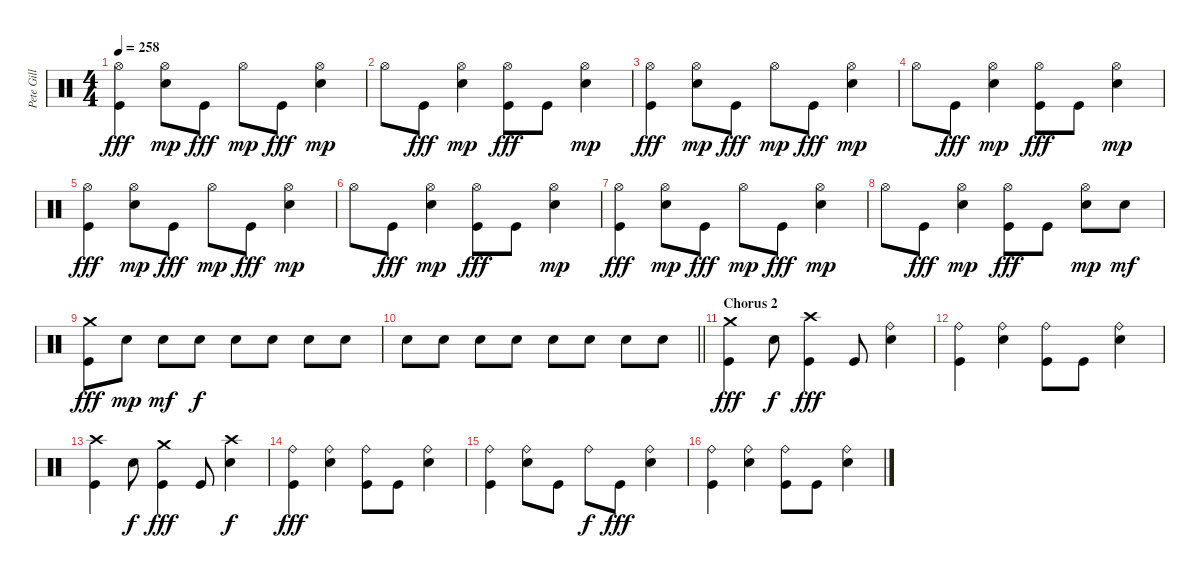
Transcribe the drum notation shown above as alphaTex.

\track ("Pete Gill" "Pete Gill") {instrument percussion}
\staff {score}
\articulation defaults
\ts (4 4)
\tempo 258
\clef neutral
\ks c
("Hi-Hat (open)" "Kick (hit)").4{dy fff} ("Hi-Hat (open)" "Electric Snare (hit)").8{dy mp} "Kick (hit)".8{dy fff} "Hi-Hat (open)".8{dy mp} "Kick (hit)".8{dy fff} ("Hi-Hat (open)" "Electric Snare (hit)").4{dy mp} |
"Hi-Hat (open)".8 "Kick (hit)".8{dy fff} ("Hi-Hat (open)" "Electric Snare (hit)").4{dy mp} ("Hi-Hat (open)" "Kick (hit)").8{dy fff} "Kick (hit)".8 ("Hi-Hat (open)" "Electric Snare (hit)").4{dy mp} |
("Hi-Hat (open)" "Kick (hit)").4{dy fff} ("Hi-Hat (open)" "Electric Snare (hit)").8{dy mp} "Kick (hit)".8{dy fff} "Hi-Hat (open)".8{dy mp} "Kick (hit)".8{dy fff} ("Hi-Hat (open)" "Electric Snare (hit)").4{dy mp} |
"Hi-Hat (open)".8 "Kick (hit)".8{dy fff} ("Hi-Hat (open)" "Electric Snare (hit)").4{dy mp} ("Hi-Hat (open)" "Kick (hit)").8{dy fff} "Kick (hit)".8 ("Hi-Hat (open)" "Electric Snare (hit)").4{dy mp} |
("Hi-Hat (open)" "Kick (hit)").4{dy fff} ("Hi-Hat (open)" "Electric Snare (hit)").8{dy mp} "Kick (hit)".8{dy fff} "Hi-Hat (open)".8{dy mp} "Kick (hit)".8{dy fff} ("Hi-Hat (open)" "Electric Snare (hit)").4{dy mp} |
"Hi-Hat (open)".8 "Kick (hit)".8{dy fff} ("Hi-Hat (open)" "Electric Snare (hit)").4{dy mp} ("Hi-Hat (open)" "Kick (hit)").8{dy fff} "Kick (hit)".8 ("Hi-Hat (open)" "Electric Snare (hit)").4{dy mp} |
("Hi-Hat (open)" "Kick (hit)").4{dy fff} ("Hi-Hat (open)" "Electric Snare (hit)").8{dy mp} "Kick (hit)".8{dy fff} "Hi-Hat (open)".8{dy mp} "Kick (hit)".8{dy fff} ("Hi-Hat (open)" "Electric Snare (hit)").4{dy mp} |
"Hi-Hat (open)".8 "Kick (hit)".8{dy fff} ("Hi-Hat (open)" "Electric Snare (hit)").4{dy mp} ("Hi-Hat (open)" "Kick (hit)").8{dy fff} "Kick (hit)".8 ("Hi-Hat (open)" "Electric Snare (hit)").8{dy mp} "Electric Snare (hit)".8{dy mf} |
("Crash medium (hit)" "Kick (hit)").8{dy fff} "Electric Snare (hit)".8{dy mp} "Electric Snare (hit)".8{dy mf} "Electric Snare (hit)".8{dy f} "Electric Snare (hit)".8 "Electric Snare (hit)".8 "Electric Snare (hit)".8 "Electric Snare (hit)".8 |
\barLineRight lightlight "Electric Snare (hit)".8 "Electric Snare (hit)".8 "Electric Snare (hit)".8 "Electric Snare (hit)".8 "Electric Snare (hit)".8 "Electric Snare (hit)".8 "Electric Snare (hit)".8 "Electric Snare (hit)".8
|
\section ("" "Chorus 2")
("Crash medium (hit)" "Kick (hit)").4{dy fff} "Electric Snare (hit)".8{dy f} ("Crash high (hit)" "Kick (hit)").4{dy fff} "Kick (hit)".8 ("Ride (bell)" "Electric Snare (hit)").4 |
("Ride (bell)" "Kick (hit)").4 ("Ride (bell)" "Electric Snare (hit)").4 ("Ride (bell)" "Kick (hit)").8 "Kick (hit)".8 ("Ride (bell)" "Electric Snare (hit)").4 |
("Crash high (hit)" "Kick (hit)").4 "Electric Snare (hit)".8{dy f} ("Crash medium (hit)" "Kick (hit)").4{dy fff} "Kick (hit)".8 ("Crash high (hit)" "Electric Snare (hit)").4{dy f} |
("Ride (bell)" "Kick (hit)").4{dy fff} ("Ride (bell)" "Electric Snare (hit)").4 ("Ride (bell)" "Kick (hit)").8 "Kick (hit)".8 ("Ride (bell)" "Electric Snare (hit)").4 |
("Ride (bell)" "Kick (hit)").4 ("Ride (bell)" "Electric Snare (hit)").8 "Kick (hit)".8 "Ride (bell)".8{dy f} "Kick (hit)".8{dy fff} ("Ride (bell)" "Electric Snare (hit)").4 |
("Ride (bell)" "Kick (hit)").4 ("Ride (bell)" "Electric Snare (hit)").4 ("Ride (bell)" "Kick (hit)").8 "Kick (hit)".8 ("Ride (bell)" "Electric Snare (hit)").4
